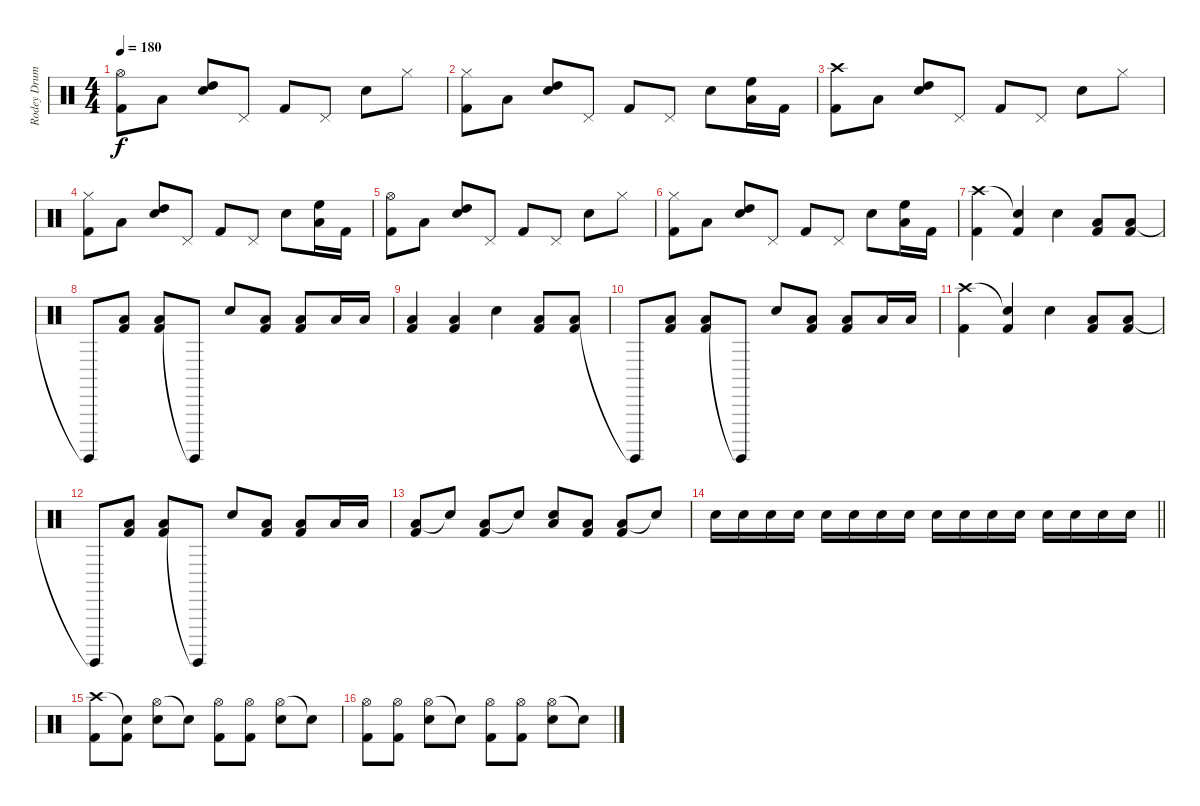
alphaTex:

\track ("Rodey Drums" "Rodey Drum") {instrument percussion}
\staff {score}
\articulation defaults
\ts (4 4)
\tempo 180
\clef neutral
\ks c
("Hi-Hat (open)" "Kick (hit) 2").8{dy f} "Low Tom (hit)".8 ("High Tom (hit)" "Electric Snare (hit)").8 "Pedal Hi-Hat (hit)".8 "Kick (hit) 2".8 "Pedal Hi-Hat (hit)".8 "Electric Snare (hit)".8 "Hi-Hat (closed)".8 |
("Hi-Hat (closed)" "Kick (hit) 2").8 "Low Tom (hit)".8 ("High Tom (hit)" "Electric Snare (hit)").8 "Pedal Hi-Hat (hit)".8 "Kick (hit) 2".8 "Pedal Hi-Hat (hit)".8 "Electric Snare (hit)".8 ("High Floor Tom (hit)" "Low Tom (hit)").16 "Kick (hit) 2".16 |
("Crash high (hit)" "Kick (hit) 2").8 "Low Tom (hit)".8 ("High Tom (hit)" "Electric Snare (hit)").8 "Pedal Hi-Hat (hit)".8 "Kick (hit) 2".8 "Pedal Hi-Hat (hit)".8 "Electric Snare (hit)".8 "Hi-Hat (closed)".8 |
("Hi-Hat (closed)" "Kick (hit) 2").8 "Low Tom (hit)".8 ("High Tom (hit)" "Electric Snare (hit)").8 "Pedal Hi-Hat (hit)".8 "Kick (hit) 2".8 "Pedal Hi-Hat (hit)".8 "Electric Snare (hit)".8 ("High Floor Tom (hit)" "Low Tom (hit)").16 "Kick (hit) 2".16 |
("Hi-Hat (open)" "Kick (hit) 2").8 "Low Tom (hit)".8 ("High Tom (hit)" "Electric Snare (hit)").8 "Pedal Hi-Hat (hit)".8 "Kick (hit) 2".8 "Pedal Hi-Hat (hit)".8 "Electric Snare (hit)".8 "Hi-Hat (closed)".8 |
("Hi-Hat (closed)" "Kick (hit) 2").8 "Low Tom (hit)".8 ("High Tom (hit)" "Electric Snare (hit)").8 "Pedal Hi-Hat (hit)".8 "Kick (hit) 2".8 "Pedal Hi-Hat (hit)".8 "Electric Snare (hit)".8 ("High Floor Tom (hit)" "Low Tom (hit)").16 "Kick (hit) 2".16 |
("Crash high (hit)" "Kick (hit) 2").4 ("Snare (hit)"{t} "Kick (hit) 2").4 "Electric Snare (hit)".4 ("Low Tom (hit)" "Kick (hit) 2").8 ("Low Tom (hit)" "Kick (hit) 2").8 |
"Surdo (hit)"{t}.8 ("Low Tom (hit)" "Kick (hit) 2").8 ("Low Tom (hit)" "Kick (hit) 2").8 "Surdo (hit)"{t}.8 "Electric Snare (hit)".8 ("Low Tom (hit)" "Kick (hit) 2").8 ("Low Tom (hit)" "Kick (hit) 2").8 "Low Tom (hit)".16 "Low Tom (hit)".16 |
("Low Tom (hit)" "Kick (hit) 2").4 ("Low Tom (hit)" "Kick (hit) 2").4 "Electric Snare (hit)".4 ("Low Tom (hit)" "Kick (hit) 2").8 ("Low Tom (hit)" "Kick (hit) 2").8 |
"Surdo (hit)"{t}.8 ("Low Tom (hit)" "Kick (hit) 2").8 ("Low Tom (hit)" "Kick (hit) 2").8 "Surdo (hit)"{t}.8 "Electric Snare (hit)".8 ("Low Tom (hit)" "Kick (hit) 2").8 ("Low Tom (hit)" "Kick (hit) 2").8 "Low Tom (hit)".16 "Low Tom (hit)".16 |
("Crash high (hit)" "Kick (hit) 2").4 ("Snare (hit)"{t} "Kick (hit) 2").4 "Electric Snare (hit)".4 ("Low Tom (hit)" "Kick (hit) 2").8 ("Low Tom (hit)" "Kick (hit) 2").8 |
"Surdo (hit)"{t}.8 ("Low Tom (hit)" "Kick (hit) 2").8 ("Low Tom (hit)" "Kick (hit) 2").8 "Surdo (hit)"{t}.8 "Electric Snare (hit)".8 ("Low Tom (hit)" "Kick (hit) 2").8 ("Low Tom (hit)" "Kick (hit) 2").8 "Low Tom (hit)".16 "Low Tom (hit)".16 |
("Low Tom (hit)" "Kick (hit) 2").8 "Snare (hit)"{t}.8 ("Low Tom (hit)" "Kick (hit) 2").8 "Snare (hit)"{t}.8 ("Low Tom (hit)" "Electric Snare (hit)").8 ("Low Tom (hit)" "Kick (hit) 2").8 ("Low Tom (hit)" "Kick (hit) 2").8 "Electric Snare (hit)"{t}.8 |
\barLineRight lightlight "Electric Snare (hit)".16 "Electric Snare (hit)".16 "Electric Snare (hit)".16 "Electric Snare (hit)".16 "Electric Snare (hit)".16 "Electric Snare (hit)".16 "Electric Snare (hit)".16 "Electric Snare (hit)".16 "Electric Snare (hit)".16 "Electric Snare (hit)".16 "Electric Snare (hit)".16 "Electric Snare (hit)".16 "Electric Snare (hit)".16 "Electric Snare (hit)".16 "Electric Snare (hit)".16 "Electric Snare (hit)".16
|
("Crash high (hit)" "Kick (hit) 2").8 ("Snare (hit)"{t} "Kick (hit) 2").8 ("Hi-Hat (open)" "Electric Snare (hit)").8 "Snare (hit)"{t}.8 ("Hi-Hat (open)" "Kick (hit) 2").8 ("Hi-Hat (open)" "Kick (hit) 2").8 ("Hi-Hat (open)" "Electric Snare (hit)").8 "Snare (hit)"{t}.8 |
("Hi-Hat (open)" "Kick (hit) 2").8 ("Hi-Hat (open)" "Kick (hit) 2").8 ("Hi-Hat (open)" "Electric Snare (hit)").8 "Snare (hit)"{t}.8 ("Hi-Hat (open)" "Kick (hit) 2").8 ("Hi-Hat (open)" "Kick (hit) 2").8 ("Hi-Hat (open)" "Electric Snare (hit)").8 "Snare (hit)"{t}.8
